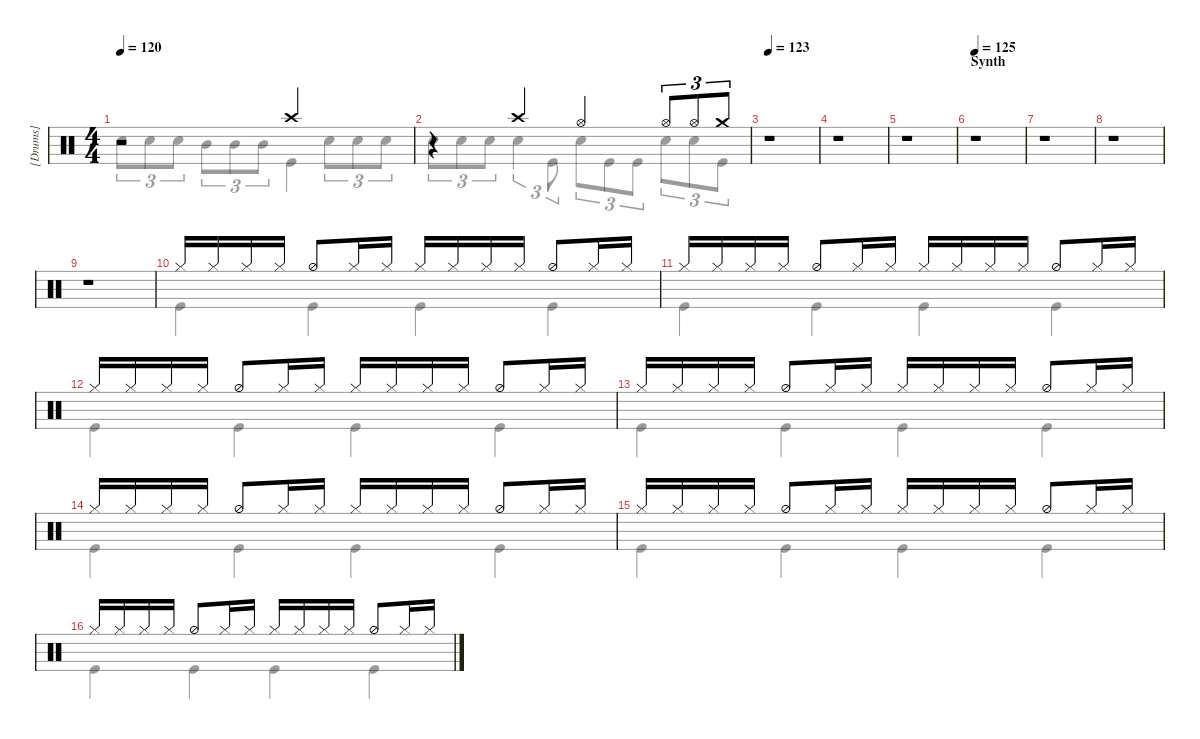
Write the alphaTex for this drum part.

\hideDynamics
\bracketExtendMode groupsimilarinstruments
\firstSystemTrackNameMode fullname
\otherSystemsTrackNameMode fullname
\otherSystemsTrackNameOrientation horizontal
\track ("[Drums]" "Drums") {instrument percussion}
\staff {score}
\articulation defaults
\voice
\ts (4 4)
\tempo 120
\clef neutral
\scale
0.333333
\ks c
r.2{dy ff} "Crash high (hit)".2 |
\scale
0.392344 r.4 "Crash high (hit)".4 "Hi-Hat (open)".4 "Hi-Hat (open)".8{tu (3 2)} "Hi-Hat (open)".8{tu (3 2)} "Crash medium (hit)".8{tu (3 2)} |
\tempo 123
r.1 |
r.1 |
r.1 |
\section ("" "Synth")
\tempo 125
r.1 |
r.1 |
r.1 |
r.1 |
"Hi-Hat (closed)".16 "Hi-Hat (closed)".16 "Hi-Hat (closed)".16 "Hi-Hat (closed)".16 "Hi-Hat (half)".8 "Hi-Hat (closed)".16 "Hi-Hat (closed)".16 "Hi-Hat (closed)".16 "Hi-Hat (closed)".16 "Hi-Hat (closed)".16 "Hi-Hat (closed)".16 "Hi-Hat (half)".8 "Hi-Hat (closed)".16 "Hi-Hat (closed)".16 |
"Hi-Hat (closed)".16 "Hi-Hat (closed)".16 "Hi-Hat (closed)".16 "Hi-Hat (closed)".16 "Hi-Hat (half)".8 "Hi-Hat (closed)".16 "Hi-Hat (closed)".16 "Hi-Hat (closed)".16 "Hi-Hat (closed)".16 "Hi-Hat (closed)".16 "Hi-Hat (closed)".16 "Hi-Hat (half)".8 "Hi-Hat (closed)".16 "Hi-Hat (closed)".16 |
\scale
0.392344 "Hi-Hat (closed)".16 "Hi-Hat (closed)".16 "Hi-Hat (closed)".16 "Hi-Hat (closed)".16 "Hi-Hat (half)".8 "Hi-Hat (closed)".16 "Hi-Hat (closed)".16 "Hi-Hat (closed)".16 "Hi-Hat (closed)".16 "Hi-Hat (closed)".16 "Hi-Hat (closed)".16 "Hi-Hat (half)".8 "Hi-Hat (closed)".16 "Hi-Hat (closed)".16 |
\scale
0.215311 "Hi-Hat (closed)".16 "Hi-Hat (closed)".16 "Hi-Hat (closed)".16 "Hi-Hat (closed)".16 "Hi-Hat (half)".8 "Hi-Hat (closed)".16 "Hi-Hat (closed)".16 "Hi-Hat (closed)".16 "Hi-Hat (closed)".16 "Hi-Hat (closed)".16 "Hi-Hat (closed)".16 "Hi-Hat (half)".8 "Hi-Hat (closed)".16 "Hi-Hat (closed)".16 |
"Hi-Hat (closed)".16 "Hi-Hat (closed)".16 "Hi-Hat (closed)".16 "Hi-Hat (closed)".16 "Hi-Hat (half)".8 "Hi-Hat (closed)".16 "Hi-Hat (closed)".16 "Hi-Hat (closed)".16 "Hi-Hat (closed)".16 "Hi-Hat (closed)".16 "Hi-Hat (closed)".16 "Hi-Hat (half)".8 "Hi-Hat (closed)".16 "Hi-Hat (closed)".16 |
"Hi-Hat (closed)".16 "Hi-Hat (closed)".16 "Hi-Hat (closed)".16 "Hi-Hat (closed)".16 "Hi-Hat (half)".8 "Hi-Hat (closed)".16 "Hi-Hat (closed)".16 "Hi-Hat (closed)".16 "Hi-Hat (closed)".16 "Hi-Hat (closed)".16 "Hi-Hat (closed)".16 "Hi-Hat (half)".8 "Hi-Hat (closed)".16 "Hi-Hat (closed)".16 |
"Hi-Hat (closed)".16 "Hi-Hat (closed)".16 "Hi-Hat (closed)".16 "Hi-Hat (closed)".16 "Hi-Hat (half)".8 "Hi-Hat (closed)".16 "Hi-Hat (closed)".16 "Hi-Hat (closed)".16 "Hi-Hat (closed)".16 "Hi-Hat (closed)".16 "Hi-Hat (closed)".16 "Hi-Hat (half)".8 "Hi-Hat (closed)".16 "Hi-Hat (closed)".16
\voice
\clef neutral
\ottava regular
\simile none
\scale
0.333333
\ks c "Snare (hit) 2".8{tu (3 2) dy f} "Snare (hit) 2".8{tu (3 2)} "Snare (hit) 2".8{tu (3 2)} "Mid Tom (hit)".8{tu (3 2)} "Mid Tom (hit)".8{tu (3 2)} "Mid Tom (hit)".8{tu (3 2)} "Kick (hit)".4 "Snare (hit) 2".8{tu (3 2)} "Snare (hit) 2".8{tu (3 2)} "Snare (hit) 2".8{tu (3 2)}
|
\scale
0.392344 "Snare (hit) 2".8{tu (3 2)} "Snare (hit) 2".8{tu (3 2)} "Snare (hit) 2".8{tu (3 2)} "Snare (hit) 2".4{tu (3 2)} "Kick (hit)".8{tu (3 2)} "Snare (hit) 2".8{tu (3 2)} "Kick (hit)".8{tu (3 2)} "Kick (hit)".8{tu (3 2)} "Snare (hit) 2".8{tu (3 2)} "Snare (hit) 2".8{tu (3 2)} "Kick (hit)".8{tu (3 2)} |
|
|
|
|
|
|
|
"Kick (hit)".4 "Kick (hit)".4 "Kick (hit)".4 "Kick (hit)".4 |
"Kick (hit)".4 "Kick (hit)".4 "Kick (hit)".4 "Kick (hit)".4 |
\scale
0.392344 "Kick (hit)".4 "Kick (hit)".4 "Kick (hit)".4 "Kick (hit)".4 |
\scale
0.215311 "Kick (hit)".4 "Kick (hit)".4 "Kick (hit)".4 "Kick (hit)".4 |
"Kick (hit)".4 "Kick (hit)".4 "Kick (hit)".4 "Kick (hit)".4 |
"Kick (hit)".4 "Kick (hit)".4 "Kick (hit)".4 "Kick (hit)".4 |
"Kick (hit)".4 "Kick (hit)".4 "Kick (hit)".4 "Kick (hit)".4
